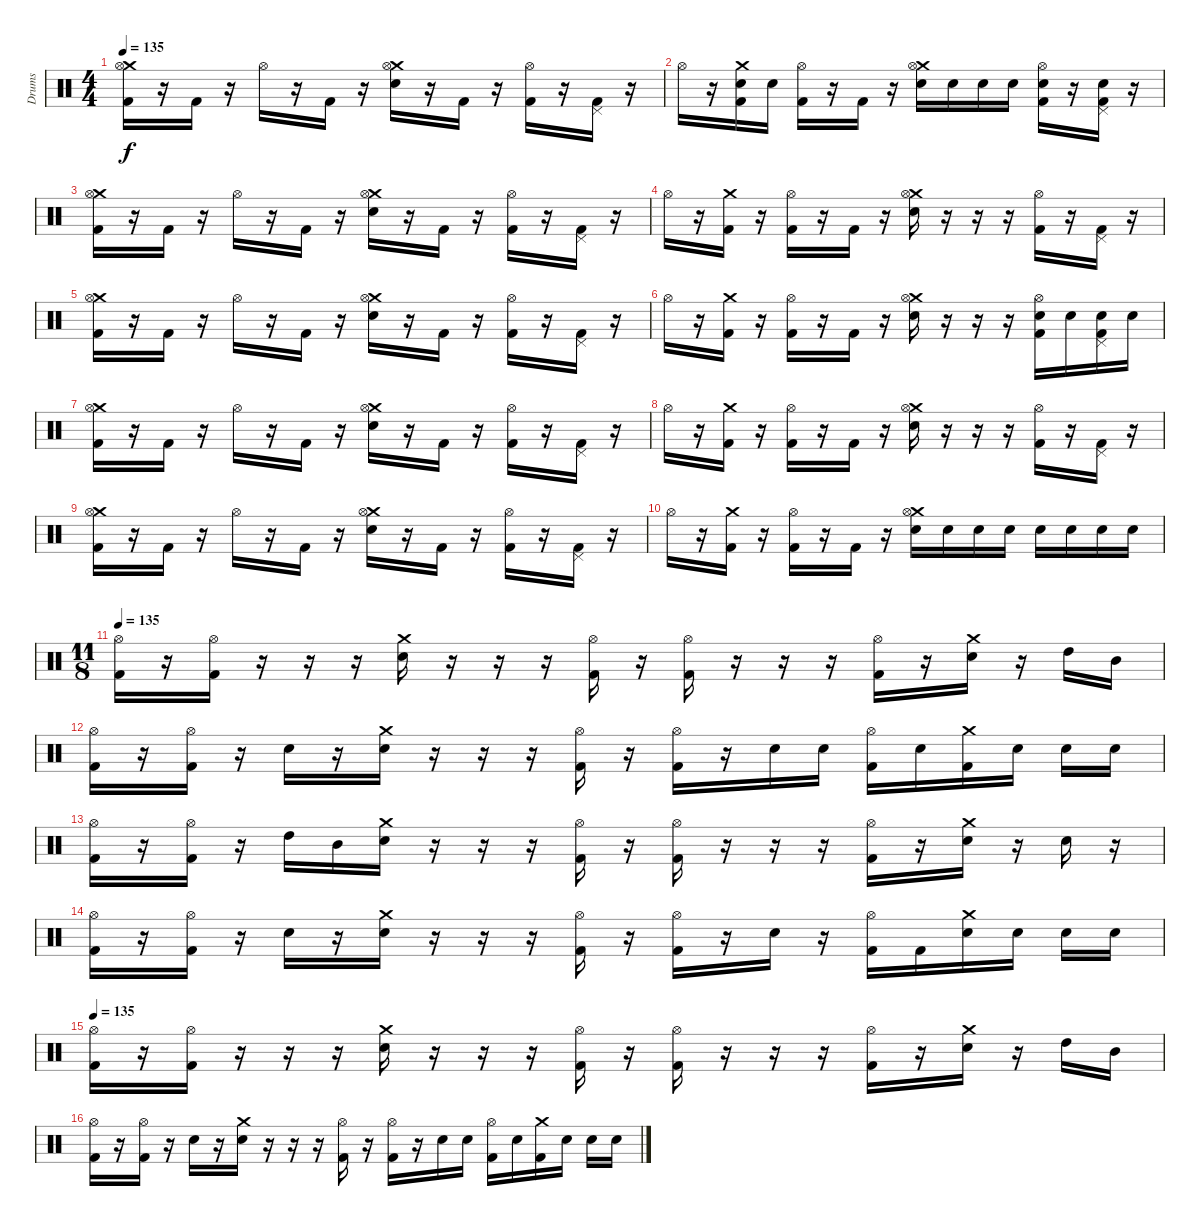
\track ("Drums" "Drums") {instrument percussion}
\staff {score}
\articulation defaults
\ts (4 4)
\tempo 135
\clef neutral
\ks c
("Crash medium (hit)" "Hi-Hat (open)" "Kick (hit) 2").16{dy f} r.16 "Kick (hit) 2".16 r.16 "Hi-Hat (open)".16 r.16 "Kick (hit) 2".16 r.16 ("Crash medium (hit)" "Hi-Hat (open)" "Electric Snare (hit)").16 r.16 "Kick (hit) 2".16 r.16 ("Hi-Hat (open)" "Kick (hit) 2").16 r.16 ("Pedal Hi-Hat (hit)" "Kick (hit) 2").16 r.16 |
"Hi-Hat (open)".16 r.16 ("Crash medium (hit)" "Electric Snare (hit)" "Kick (hit) 2").16 "Electric Snare (hit)".16 ("Hi-Hat (open)" "Kick (hit) 2").16 r.16 "Kick (hit) 2".16 r.16 ("Crash medium (hit)" "Hi-Hat (open)" "Electric Snare (hit)").16 "Electric Snare (hit)".16 "Electric Snare (hit)".16 "Electric Snare (hit)".16 ("Hi-Hat (open)" "Electric Snare (hit)" "Kick (hit) 2").16 r.16 ("Pedal Hi-Hat (hit)" "Electric Snare (hit)" "Kick (hit) 2").16 r.16 |
("Crash medium (hit)" "Hi-Hat (open)" "Kick (hit) 2").16 r.16 "Kick (hit) 2".16 r.16 "Hi-Hat (open)".16 r.16 "Kick (hit) 2".16 r.16 ("Crash medium (hit)" "Hi-Hat (open)" "Electric Snare (hit)").16 r.16 "Kick (hit) 2".16 r.16 ("Hi-Hat (open)" "Kick (hit) 2").16 r.16 ("Pedal Hi-Hat (hit)" "Kick (hit) 2").16 r.16 |
"Hi-Hat (open)".16 r.16 ("Crash medium (hit)" "Kick (hit) 2").16 r.16 ("Hi-Hat (open)" "Kick (hit) 2").16 r.16 "Kick (hit) 2".16 r.16 ("Crash medium (hit)" "Hi-Hat (open)" "Electric Snare (hit)").16 r.16 r.16 r.16 ("Hi-Hat (open)" "Kick (hit) 2").16 r.16 ("Pedal Hi-Hat (hit)" "Kick (hit) 2").16 r.16 |
("Crash medium (hit)" "Hi-Hat (open)" "Kick (hit) 2").16 r.16 "Kick (hit) 2".16 r.16 "Hi-Hat (open)".16 r.16 "Kick (hit) 2".16 r.16 ("Crash medium (hit)" "Hi-Hat (open)" "Electric Snare (hit)").16 r.16 "Kick (hit) 2".16 r.16 ("Hi-Hat (open)" "Kick (hit) 2").16 r.16 ("Pedal Hi-Hat (hit)" "Kick (hit) 2").16 r.16 |
"Hi-Hat (open)".16 r.16 ("Crash medium (hit)" "Kick (hit) 2").16 r.16 ("Hi-Hat (open)" "Kick (hit) 2").16 r.16 "Kick (hit) 2".16 r.16 ("Crash medium (hit)" "Hi-Hat (open)" "Electric Snare (hit)").16 r.16 r.16 r.16 ("Hi-Hat (open)" "Electric Snare (hit)" "Kick (hit) 2").16 "Electric Snare (hit)".16 ("Pedal Hi-Hat (hit)" "Electric Snare (hit)" "Kick (hit) 2").16 "Electric Snare (hit)".16 |
("Crash medium (hit)" "Hi-Hat (open)" "Kick (hit) 2").16 r.16 "Kick (hit) 2".16 r.16 "Hi-Hat (open)".16 r.16 "Kick (hit) 2".16 r.16 ("Crash medium (hit)" "Hi-Hat (open)" "Electric Snare (hit)").16 r.16 "Kick (hit) 2".16 r.16 ("Hi-Hat (open)" "Kick (hit) 2").16 r.16 ("Pedal Hi-Hat (hit)" "Kick (hit) 2").16 r.16 |
"Hi-Hat (open)".16 r.16 ("Crash medium (hit)" "Kick (hit) 2").16 r.16 ("Hi-Hat (open)" "Kick (hit) 2").16 r.16 "Kick (hit) 2".16 r.16 ("Crash medium (hit)" "Hi-Hat (open)" "Electric Snare (hit)").16 r.16 r.16 r.16 ("Hi-Hat (open)" "Kick (hit) 2").16 r.16 ("Pedal Hi-Hat (hit)" "Kick (hit) 2").16 r.16 |
("Crash medium (hit)" "Hi-Hat (open)" "Kick (hit) 2").16 r.16 "Kick (hit) 2".16 r.16 "Hi-Hat (open)".16 r.16 "Kick (hit) 2".16 r.16 ("Crash medium (hit)" "Hi-Hat (open)" "Electric Snare (hit)").16 r.16 "Kick (hit) 2".16 r.16 ("Hi-Hat (open)" "Kick (hit) 2").16 r.16 ("Pedal Hi-Hat (hit)" "Kick (hit) 2").16 r.16 |
"Hi-Hat (open)".16 r.16 ("Crash medium (hit)" "Kick (hit) 2").16 r.16 ("Hi-Hat (open)" "Kick (hit) 2").16 r.16 "Kick (hit) 2".16 r.16 ("Crash medium (hit)" "Hi-Hat (open)" "Electric Snare (hit)").16 "Electric Snare (hit)".16 "Electric Snare (hit)".16 "Electric Snare (hit)".16 "Electric Snare (hit)".16 "Electric Snare (hit)".16 "Electric Snare (hit)".16 "Electric Snare (hit)".16 |
\ts (11 8)
\tempo 135
("Hi-Hat (open)" "Kick (hit) 2").16 r.16 ("Hi-Hat (open)" "Kick (hit) 2").16 r.16 r.16 r.16 ("Crash medium (hit)" "Electric Snare (hit)").16 r.16 r.16 r.16 ("Hi-Hat (open)" "Kick (hit) 2").16 r.16 ("Hi-Hat (open)" "Kick (hit) 2").16 r.16 r.16 r.16 ("Hi-Hat (open)" "Kick (hit) 2").16 r.16 ("Crash medium (hit)" "Electric Snare (hit)").16 r.16 "High Tom (hit)".16 "Mid Tom (hit)".16 |
("Hi-Hat (open)" "Kick (hit) 2").16 r.16 ("Hi-Hat (open)" "Kick (hit) 2").16 r.16 "Electric Snare (hit)".16 r.16 ("Crash medium (hit)" "Electric Snare (hit)").16 r.16 r.16 r.16 ("Hi-Hat (open)" "Kick (hit) 2").16 r.16 ("Hi-Hat (open)" "Kick (hit) 2").16 r.16 "Electric Snare (hit)".16 "Electric Snare (hit)".16 ("Hi-Hat (open)" "Kick (hit) 2").16 "Electric Snare (hit)".16 ("Crash medium (hit)" "Kick (hit) 2").16 "Electric Snare (hit)".16 "Electric Snare (hit)".16 "Electric Snare (hit)".16 |
("Hi-Hat (open)" "Kick (hit) 2").16 r.16 ("Hi-Hat (open)" "Kick (hit) 2").16 r.16 "High Tom (hit)".16 "Mid Tom (hit)".16 ("Crash medium (hit)" "Electric Snare (hit)").16 r.16 r.16 r.16 ("Hi-Hat (open)" "Kick (hit) 2").16 r.16 ("Hi-Hat (open)" "Kick (hit) 2").16 r.16 r.16 r.16 ("Hi-Hat (open)" "Kick (hit) 2").16 r.16 ("Crash medium (hit)" "Electric Snare (hit)").16 r.16 "Electric Snare (hit)".16 r.16 |
("Hi-Hat (open)" "Kick (hit) 2").16 r.16 ("Hi-Hat (open)" "Kick (hit) 2").16 r.16 "Electric Snare (hit)".16 r.16 ("Crash medium (hit)" "Electric Snare (hit)").16 r.16 r.16 r.16 ("Hi-Hat (open)" "Kick (hit) 2").16 r.16 ("Hi-Hat (open)" "Kick (hit) 2").16 r.16 "Electric Snare (hit)".16 r.16 ("Hi-Hat (open)" "Kick (hit) 2").16 "Kick (hit) 2".16 ("Crash medium (hit)" "Electric Snare (hit)").16 "Electric Snare (hit)".16 "Electric Snare (hit)".16 "Electric Snare (hit)".16 |
\tempo 135
("Hi-Hat (open)" "Kick (hit) 2").16 r.16 ("Hi-Hat (open)" "Kick (hit) 2").16 r.16 r.16 r.16 ("Crash medium (hit)" "Electric Snare (hit)").16 r.16 r.16 r.16 ("Hi-Hat (open)" "Kick (hit) 2").16 r.16 ("Hi-Hat (open)" "Kick (hit) 2").16 r.16 r.16 r.16 ("Hi-Hat (open)" "Kick (hit) 2").16 r.16 ("Crash medium (hit)" "Electric Snare (hit)").16 r.16 "High Tom (hit)".16 "Mid Tom (hit)".16 |
("Hi-Hat (open)" "Kick (hit) 2").16 r.16 ("Hi-Hat (open)" "Kick (hit) 2").16 r.16 "Electric Snare (hit)".16 r.16 ("Crash medium (hit)" "Electric Snare (hit)").16 r.16 r.16 r.16 ("Hi-Hat (open)" "Kick (hit) 2").16 r.16 ("Hi-Hat (open)" "Kick (hit) 2").16 r.16 "Electric Snare (hit)".16 "Electric Snare (hit)".16 ("Hi-Hat (open)" "Kick (hit) 2").16 "Electric Snare (hit)".16 ("Crash medium (hit)" "Kick (hit) 2").16 "Electric Snare (hit)".16 "Electric Snare (hit)".16 "Electric Snare (hit)".16
